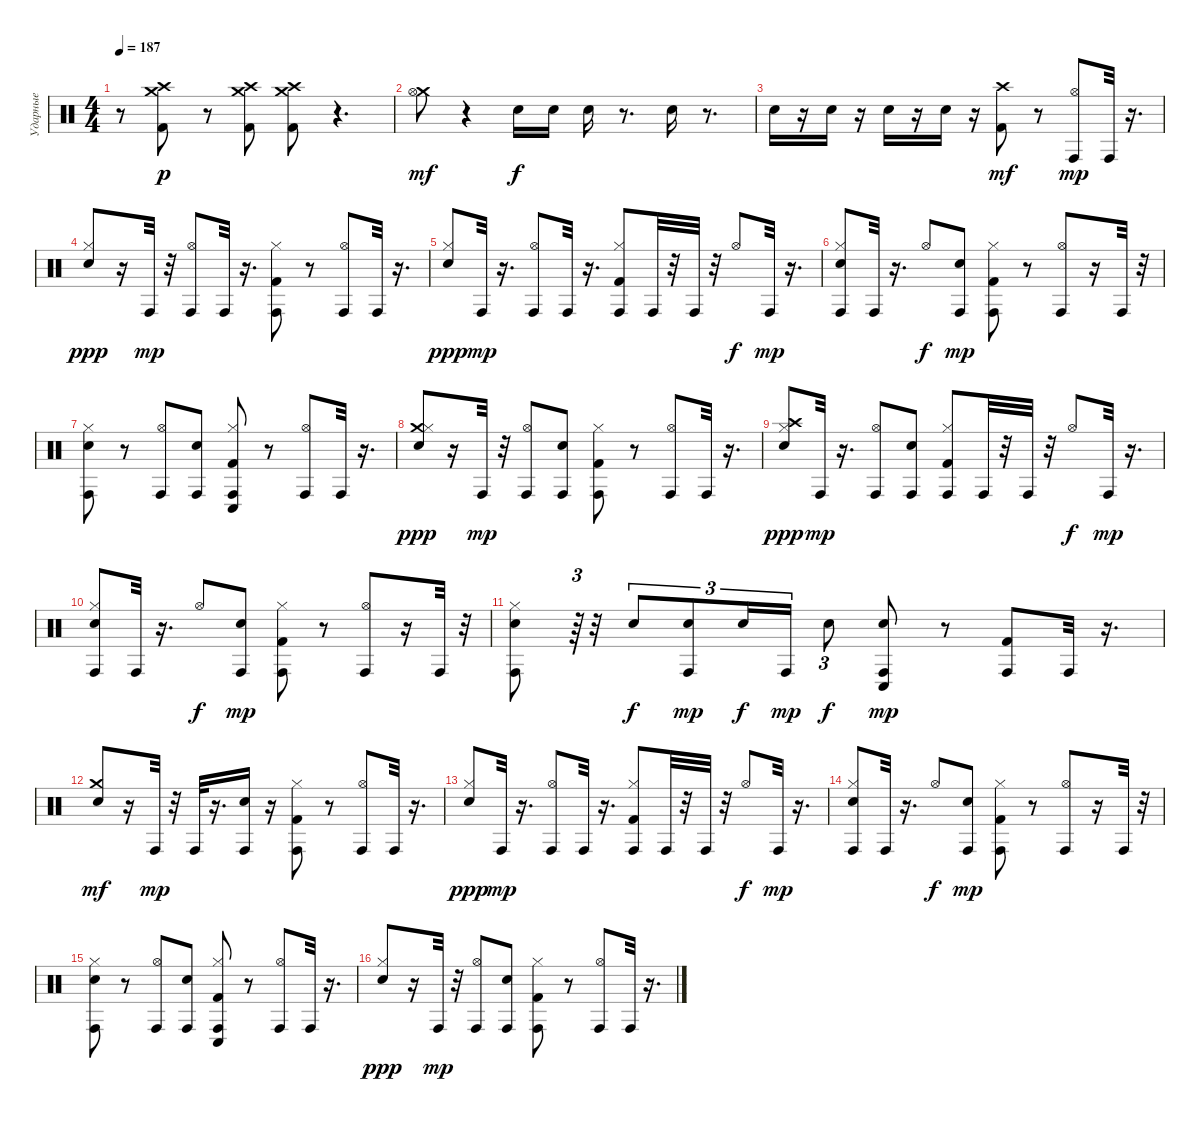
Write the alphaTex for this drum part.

\track ("Ударные" "Ударные") {instrument percussion}
\staff {score}
\articulation defaults
\ts (4 4)
\tempo 187
\clef neutral
\ks c
r.8{dy p} ("Crash medium (hit)" "Crash high (hit)" "Kick (hit) 2").8 r.8 ("Kick (hit) 2" "Crash medium (hit)" "Crash high (hit)").8 ("Crash medium (hit)" "Crash high (hit)" "Kick (hit) 2").8 r.4{d} |
("Crash medium (hit)" "Hi-Hat (open)").8{dy mf} r.4 "Electric Snare (hit)".16{dy f} "Electric Snare (hit)".16 "Electric Snare (hit)".16 r.8{d} "Electric Snare (hit)".16 r.8{d} |
"Electric Snare (hit)".16 r.16 "Electric Snare (hit)".16 r.16 "Electric Snare (hit)".16 r.16 "Electric Snare (hit)".16 r.16 ("Crash high (hit)" "Kick (hit) 2").8{dy mf} r.8 ("Hi-Hat (open)" "Conga high (hit)").8{dy mp} "Conga high (hit)".32 r.16{d} |
("Hi-Hat (closed)" "Electric Snare (hit)").8{dy ppp} r.16 "Conga high (hit)".32{dy mp} r.32 ("Hi-Hat (open)" "Conga high (hit)").8 "Conga high (hit)".32 r.16{d} ("Hi-Hat (closed)" "Kick (hit) 2" "Conga high (hit)").8 r.8 ("Hi-Hat (open)" "Conga high (hit)").8 "Conga high (hit)".32 r.16{d} |
("Hi-Hat (closed)" "Electric Snare (hit)").8{dy ppp} "Conga high (hit)".32{dy mp} r.16{d} ("Hi-Hat (open)" "Conga high (hit)").8 "Conga high (hit)".32 r.16{d} ("Hi-Hat (closed)" "Kick (hit) 2" "Conga high (hit)").8 "Conga high (hit)".32 r.32 "Conga high (hit)".32 r.32 "Hi-Hat (open)".8{dy f} "Conga high (hit)".32{dy mp} r.16{d} |
("Hi-Hat (closed)" "Electric Snare (hit)" "Conga high (hit)").8 "Conga high (hit)".32 r.16{d} "Hi-Hat (open)".8{dy f} ("Electric Snare (hit)" "Conga high (hit)").8{dy mp} ("Hi-Hat (closed)" "Kick (hit) 2" "Conga high (hit)").8 r.8 ("Hi-Hat (open)" "Conga high (hit)").8 r.16 "Conga high (hit)".32 r.32 |
("Hi-Hat (closed)" "Electric Snare (hit)" "Conga high (hit)").8 r.8 ("Hi-Hat (open)" "Conga high (hit)").8 ("Electric Snare (hit)" "Conga high (hit)").8 ("Hi-Hat (closed)" "Kick (hit) 2" "Conga high (hit)" "Conga low (hit)").8 r.8 ("Hi-Hat (open)" "Conga high (hit)").8 "Conga high (hit)".32 r.16{d} |
("Crash medium (hit)" "Hi-Hat (closed)" "Electric Snare (hit)").8{dy ppp} r.16 "Conga high (hit)".32{dy mp} r.32 ("Hi-Hat (open)" "Conga high (hit)").8 ("Electric Snare (hit)" "Conga high (hit)").8 ("Hi-Hat (closed)" "Kick (hit) 2" "Conga high (hit)").8 r.8 ("Hi-Hat (open)" "Conga high (hit)").8 "Conga high (hit)".32 r.16{d} |
("Crash high (hit)" "Hi-Hat (closed)" "Electric Snare (hit)").8{dy ppp} "Conga high (hit)".32{dy mp} r.16{d} ("Hi-Hat (open)" "Conga high (hit)").8 ("Electric Snare (hit)" "Conga high (hit)").8 ("Hi-Hat (closed)" "Kick (hit) 2" "Conga high (hit)").8 "Conga high (hit)".32 r.32 "Conga high (hit)".32 r.32 "Hi-Hat (open)".8{dy f} "Conga high (hit)".32{dy mp} r.16{d} |
("Hi-Hat (closed)" "Electric Snare (hit)" "Conga high (hit)").8 "Conga high (hit)".32 r.16{d} "Hi-Hat (open)".8{dy f} ("Electric Snare (hit)" "Conga high (hit)").8{dy mp} ("Hi-Hat (closed)" "Kick (hit) 2" "Conga high (hit)").8 r.8 ("Hi-Hat (open)" "Conga high (hit)").8 r.16 "Conga high (hit)".32 r.32 |
("Hi-Hat (closed)" "Electric Snare (hit)" "Conga high (hit)").8 r.64{tu (3 2)} r.32 "Electric Snare (hit)".8{tu (3 2) dy f} ("Electric Snare (hit)" "Conga high (hit)").8{tu (3 2) dy mp} "Electric Snare (hit)".16{tu (3 2) dy f} "Conga high (hit)".16{tu (3 2) dy mp} "Electric Snare (hit)".8{tu (3 2) dy f} ("Electric Snare (hit)" "Conga high (hit)" "Conga low (hit)").8{dy mp} r.8 ("Kick (hit) 2" "Conga high (hit)").8 "Conga high (hit)".32 r.16{d} |
("Crash medium (hit)" "Electric Snare (hit)").8{dy mf} r.16 "Conga high (hit)".32{dy mp} r.32 "Conga high (hit)".32 r.16{d} ("Electric Snare (hit)" "Conga high (hit)").16 r.16 ("Hi-Hat (closed)" "Kick (hit) 2" "Conga high (hit)").8 r.8 ("Hi-Hat (open)" "Conga high (hit)").8 "Conga high (hit)".32 r.16{d} |
("Hi-Hat (closed)" "Electric Snare (hit)").8{dy ppp} "Conga high (hit)".32{dy mp} r.16{d} ("Hi-Hat (open)" "Conga high (hit)").8 "Conga high (hit)".32 r.16{d} ("Hi-Hat (closed)" "Kick (hit) 2" "Conga high (hit)").8 "Conga high (hit)".32 r.32 "Conga high (hit)".32 r.32 "Hi-Hat (open)".8{dy f} "Conga high (hit)".32{dy mp} r.16{d} |
("Hi-Hat (closed)" "Electric Snare (hit)" "Conga high (hit)").8 "Conga high (hit)".32 r.16{d} "Hi-Hat (open)".8{dy f} ("Electric Snare (hit)" "Conga high (hit)").8{dy mp} ("Hi-Hat (closed)" "Kick (hit) 2" "Conga high (hit)").8 r.8 ("Hi-Hat (open)" "Conga high (hit)").8 r.16 "Conga high (hit)".32 r.32 |
("Hi-Hat (closed)" "Electric Snare (hit)" "Conga high (hit)").8 r.8 ("Hi-Hat (open)" "Conga high (hit)").8 ("Electric Snare (hit)" "Conga high (hit)").8 ("Hi-Hat (closed)" "Kick (hit) 2" "Conga low (hit)" "Conga high (hit)").8 r.8 ("Hi-Hat (open)" "Conga high (hit)").8 "Conga high (hit)".32 r.16{d} |
("Hi-Hat (closed)" "Electric Snare (hit)").8{dy ppp} r.16 "Conga high (hit)".32{dy mp} r.32 ("Hi-Hat (open)" "Conga high (hit)").8 ("Electric Snare (hit)" "Conga high (hit)").8 ("Hi-Hat (closed)" "Kick (hit) 2" "Conga high (hit)").8 r.8 ("Hi-Hat (open)" "Conga high (hit)").8 "Conga high (hit)".32 r.16{d}
